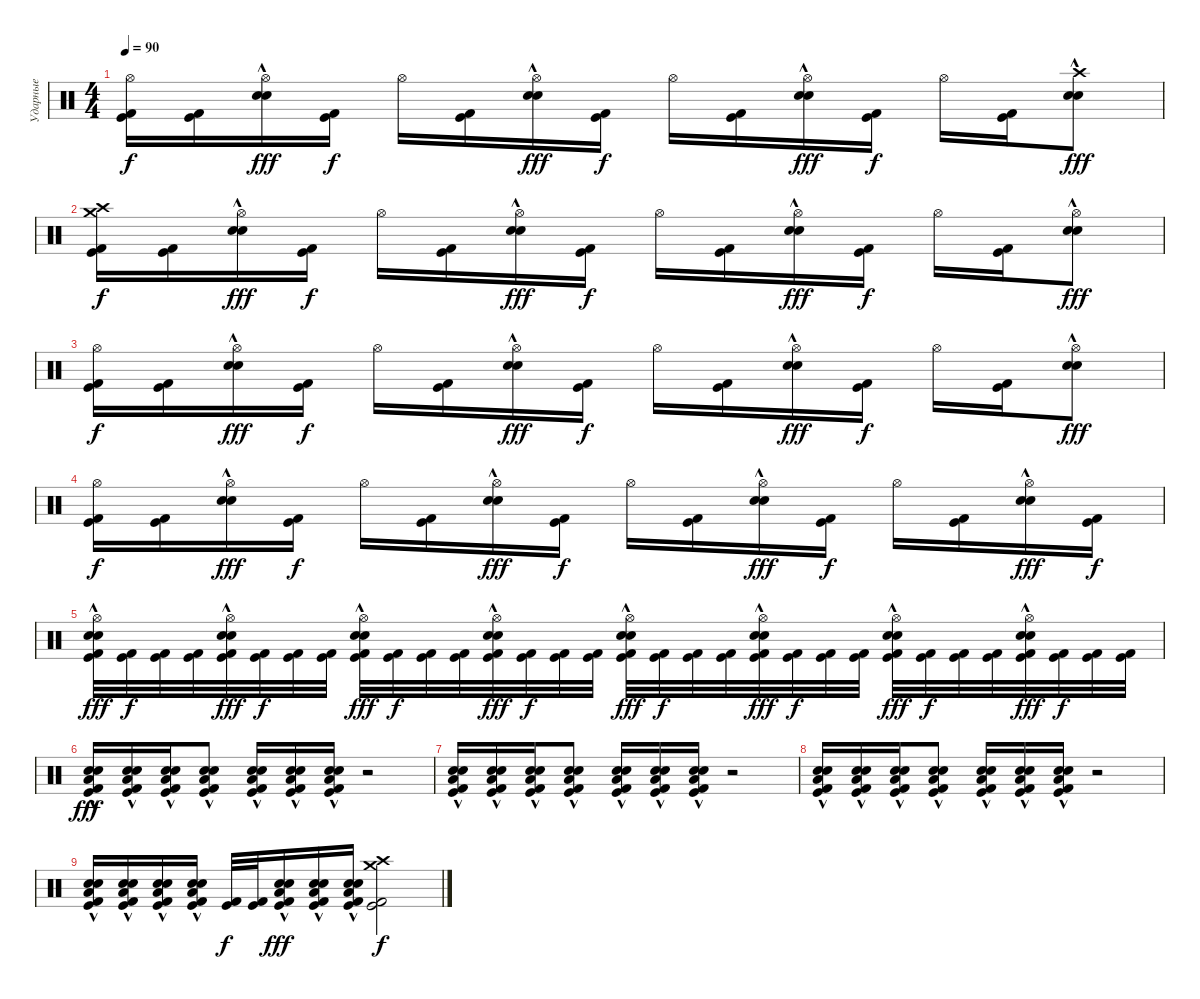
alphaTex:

\track ("Ударные" "Ударные") {instrument percussion}
\staff {score}
\articulation defaults
\ts (4 4)
\tempo 90
\clef neutral
\ks c
("Hi-Hat (open)" "Kick (hit)" "Kick (hit) 2").16{dy f} ("Kick (hit)" "Kick (hit) 2").16 ("Hi-Hat (open)" "Snare (hit) 2"{hac} "Electric Snare (hit)"{hac}).16{dy fff} ("Kick (hit)" "Kick (hit) 2").16{dy f} "Hi-Hat (open)".16 ("Kick (hit)" "Kick (hit) 2").16 ("Hi-Hat (open)" "Snare (hit) 2"{hac} "Electric Snare (hit)"{hac}).16{dy fff} ("Kick (hit)" "Kick (hit) 2").16{dy f} "Hi-Hat (open)".16 ("Kick (hit)" "Kick (hit) 2").16 ("Hi-Hat (open)" "Snare (hit) 2"{hac} "Electric Snare (hit)"{hac}).16{dy fff} ("Kick (hit)" "Kick (hit) 2").16{dy f} "Hi-Hat (open)".16 ("Kick (hit)" "Kick (hit) 2").16 ("Crash high (hit)" "Snare (hit) 2"{hac} "Electric Snare (hit)"{hac}).8{dy fff} |
("Crash high (hit)" "Kick (hit)" "Kick (hit) 2" "Crash medium (hit)").16{dy f} ("Kick (hit)" "Kick (hit) 2").16 ("Hi-Hat (open)" "Snare (hit) 2"{hac} "Electric Snare (hit)"{hac}).16{dy fff} ("Kick (hit)" "Kick (hit) 2").16{dy f} "Hi-Hat (open)".16 ("Kick (hit)" "Kick (hit) 2").16 ("Hi-Hat (open)" "Snare (hit) 2"{hac} "Electric Snare (hit)"{hac}).16{dy fff} ("Kick (hit)" "Kick (hit) 2").16{dy f} "Hi-Hat (open)".16 ("Kick (hit)" "Kick (hit) 2").16 ("Hi-Hat (open)" "Snare (hit) 2"{hac} "Electric Snare (hit)"{hac}).16{dy fff} ("Kick (hit)" "Kick (hit) 2").16{dy f} "Hi-Hat (open)".16 ("Kick (hit)" "Kick (hit) 2").16 ("Hi-Hat (open)" "Snare (hit) 2"{hac} "Electric Snare (hit)"{hac}).8{dy fff} |
("Hi-Hat (open)" "Kick (hit)" "Kick (hit) 2").16{dy f} ("Kick (hit)" "Kick (hit) 2").16 ("Hi-Hat (open)" "Snare (hit) 2"{hac} "Electric Snare (hit)"{hac}).16{dy fff} ("Kick (hit)" "Kick (hit) 2").16{dy f} "Hi-Hat (open)".16 ("Kick (hit)" "Kick (hit) 2").16 ("Hi-Hat (open)" "Snare (hit) 2"{hac} "Electric Snare (hit)"{hac}).16{dy fff} ("Kick (hit)" "Kick (hit) 2").16{dy f} "Hi-Hat (open)".16 ("Kick (hit)" "Kick (hit) 2").16 ("Hi-Hat (open)" "Snare (hit) 2"{hac} "Electric Snare (hit)"{hac}).16{dy fff} ("Kick (hit)" "Kick (hit) 2").16{dy f} "Hi-Hat (open)".16 ("Kick (hit)" "Kick (hit) 2").16 ("Hi-Hat (open)" "Snare (hit) 2"{hac} "Electric Snare (hit)"{hac}).8{dy fff} |
("Hi-Hat (open)" "Kick (hit)" "Kick (hit) 2").16{dy f} ("Kick (hit)" "Kick (hit) 2").16 ("Hi-Hat (open)" "Snare (hit) 2"{hac} "Electric Snare (hit)"{hac}).16{dy fff} ("Kick (hit)" "Kick (hit) 2").16{dy f} "Hi-Hat (open)".16 ("Kick (hit)" "Kick (hit) 2").16 ("Hi-Hat (open)" "Snare (hit) 2"{hac} "Electric Snare (hit)"{hac}).16{dy fff} ("Kick (hit)" "Kick (hit) 2").16{dy f} "Hi-Hat (open)".16 ("Kick (hit)" "Kick (hit) 2").16 ("Hi-Hat (open)" "Snare (hit) 2"{hac} "Electric Snare (hit)"{hac}).16{dy fff} ("Kick (hit)" "Kick (hit) 2").16{dy f} "Hi-Hat (open)".16 ("Kick (hit)" "Kick (hit) 2").16 ("Hi-Hat (open)" "Snare (hit) 2"{hac} "Electric Snare (hit)"{hac}).16{dy fff} ("Kick (hit)" "Kick (hit) 2").16{dy f} |
("Hi-Hat (open)" "Kick (hit)" "Kick (hit) 2" "Snare (hit) 2"{hac} "Electric Snare (hit)"{hac}).32{dy fff} ("Kick (hit)" "Kick (hit) 2").32{dy f} ("Kick (hit)" "Kick (hit) 2").32 ("Kick (hit)" "Kick (hit) 2").32 ("Hi-Hat (open)" "Kick (hit)" "Kick (hit) 2" "Snare (hit) 2"{hac} "Electric Snare (hit)"{hac}).32{dy fff} ("Kick (hit)" "Kick (hit) 2").32{dy f} ("Kick (hit)" "Kick (hit) 2").32 ("Kick (hit)" "Kick (hit) 2").32 ("Hi-Hat (open)" "Kick (hit)" "Kick (hit) 2" "Snare (hit) 2"{hac} "Electric Snare (hit)"{hac}).32{dy fff} ("Kick (hit)" "Kick (hit) 2").32{dy f} ("Kick (hit)" "Kick (hit) 2").32 ("Kick (hit)" "Kick (hit) 2").32 ("Hi-Hat (open)" "Kick (hit)" "Kick (hit) 2" "Snare (hit) 2"{hac} "Electric Snare (hit)"{hac}).32{dy fff} ("Kick (hit)" "Kick (hit) 2").32{dy f} ("Kick (hit)" "Kick (hit) 2").32 ("Kick (hit)" "Kick (hit) 2").32 ("Hi-Hat (open)" "Kick (hit)" "Kick (hit) 2" "Snare (hit) 2"{hac} "Electric Snare (hit)"{hac}).32{dy fff} ("Kick (hit)" "Kick (hit) 2").32{dy f} ("Kick (hit)" "Kick (hit) 2").32 ("Kick (hit)" "Kick (hit) 2").32 ("Hi-Hat (open)" "Kick (hit)" "Kick (hit) 2" "Snare (hit) 2"{hac} "Electric Snare (hit)"{hac}).32{dy fff} ("Kick (hit)" "Kick (hit) 2").32{dy f} ("Kick (hit)" "Kick (hit) 2").32 ("Kick (hit)" "Kick (hit) 2").32 ("Hi-Hat (open)" "Kick (hit)" "Kick (hit) 2" "Snare (hit) 2"{hac} "Electric Snare (hit)"{hac}).32{dy fff} ("Kick (hit)" "Kick (hit) 2").32{dy f} ("Kick (hit)" "Kick (hit) 2").32 ("Kick (hit)" "Kick (hit) 2").32 ("Hi-Hat (open)" "Kick (hit)" "Kick (hit) 2" "Snare (hit) 2"{hac} "Electric Snare (hit)"{hac}).32{dy fff} ("Kick (hit)" "Kick (hit) 2").32{dy f} ("Kick (hit)" "Kick (hit) 2").32 ("Kick (hit)" "Kick (hit) 2").32 |
("Kick (hit)" "Kick (hit) 2" "Snare (hit) 2"{hac} "Electric Snare (hit)"{hac} "Low Floor Tom (hit)"{hac}).16{dy fff} ("Kick (hit)" "Kick (hit) 2" "Snare (hit) 2"{hac} "Electric Snare (hit)"{hac} "Low Floor Tom (hit)"{hac}).16 ("Kick (hit)" "Kick (hit) 2" "Snare (hit) 2"{hac} "Electric Snare (hit)"{hac} "Low Floor Tom (hit)"{hac}).16 ("Kick (hit)" "Kick (hit) 2" "Snare (hit) 2"{hac} "Electric Snare (hit)"{hac} "Low Floor Tom (hit)"{hac}).8 ("Kick (hit)" "Kick (hit) 2" "Snare (hit) 2"{hac} "Electric Snare (hit)"{hac} "Low Floor Tom (hit)"{hac}).16 ("Kick (hit)" "Kick (hit) 2" "Snare (hit) 2"{hac} "Electric Snare (hit)"{hac} "Low Floor Tom (hit)"{hac}).16 ("Kick (hit)" "Kick (hit) 2" "Snare (hit) 2"{hac} "Electric Snare (hit)"{hac} "Low Floor Tom (hit)"{hac}).16 r.2 |
("Kick (hit)" "Kick (hit) 2" "Snare (hit) 2"{hac} "Electric Snare (hit)"{hac} "Low Floor Tom (hit)"{hac}).16 ("Kick (hit)" "Kick (hit) 2" "Snare (hit) 2"{hac} "Electric Snare (hit)"{hac} "Low Floor Tom (hit)"{hac}).16 ("Kick (hit)" "Kick (hit) 2" "Snare (hit) 2"{hac} "Electric Snare (hit)"{hac} "Low Floor Tom (hit)"{hac}).16 ("Kick (hit)" "Kick (hit) 2" "Snare (hit) 2"{hac} "Electric Snare (hit)"{hac} "Low Floor Tom (hit)"{hac}).8 ("Kick (hit)" "Kick (hit) 2" "Snare (hit) 2"{hac} "Electric Snare (hit)"{hac} "Low Floor Tom (hit)"{hac}).16 ("Kick (hit)" "Kick (hit) 2" "Snare (hit) 2"{hac} "Electric Snare (hit)"{hac} "Low Floor Tom (hit)"{hac}).16 ("Kick (hit)" "Kick (hit) 2" "Snare (hit) 2"{hac} "Electric Snare (hit)"{hac} "Low Floor Tom (hit)"{hac}).16 r.2 |
("Kick (hit)" "Kick (hit) 2" "Snare (hit) 2"{hac} "Electric Snare (hit)"{hac} "Low Floor Tom (hit)"{hac}).16 ("Kick (hit)" "Kick (hit) 2" "Snare (hit) 2"{hac} "Electric Snare (hit)"{hac} "Low Floor Tom (hit)"{hac}).16 ("Kick (hit)" "Kick (hit) 2" "Snare (hit) 2"{hac} "Electric Snare (hit)"{hac} "Low Floor Tom (hit)"{hac}).16 ("Kick (hit)" "Kick (hit) 2" "Snare (hit) 2"{hac} "Electric Snare (hit)"{hac} "Low Floor Tom (hit)"{hac}).8 ("Kick (hit)" "Kick (hit) 2" "Snare (hit) 2"{hac} "Electric Snare (hit)"{hac} "Low Floor Tom (hit)"{hac}).16 ("Kick (hit)" "Kick (hit) 2" "Snare (hit) 2"{hac} "Electric Snare (hit)"{hac} "Low Floor Tom (hit)"{hac}).16 ("Kick (hit)" "Kick (hit) 2" "Snare (hit) 2"{hac} "Electric Snare (hit)"{hac} "Low Floor Tom (hit)"{hac}).16 r.2 |
("Kick (hit)" "Kick (hit) 2" "Snare (hit) 2"{hac} "Electric Snare (hit)"{hac} "Low Floor Tom (hit)"{hac}).16 ("Kick (hit)" "Kick (hit) 2" "Snare (hit) 2"{hac} "Electric Snare (hit)"{hac} "Low Floor Tom (hit)"{hac}).16 ("Kick (hit)" "Kick (hit) 2" "Snare (hit) 2"{hac} "Electric Snare (hit)"{hac} "Low Floor Tom (hit)"{hac}).16 ("Kick (hit)" "Kick (hit) 2" "Snare (hit) 2"{hac} "Electric Snare (hit)"{hac} "Low Floor Tom (hit)"{hac}).16 ("Kick (hit)" "Kick (hit) 2").32{dy f} ("Kick (hit)" "Kick (hit) 2").32 ("Kick (hit)" "Kick (hit) 2" "Snare (hit) 2"{hac} "Electric Snare (hit)"{hac} "Low Floor Tom (hit)"{hac}).16{dy fff} ("Kick (hit)" "Kick (hit) 2" "Snare (hit) 2"{hac} "Electric Snare (hit)"{hac} "Low Floor Tom (hit)"{hac}).16 ("Kick (hit)" "Kick (hit) 2" "Snare (hit) 2"{hac} "Electric Snare (hit)"{hac} "Low Floor Tom (hit)"{hac}).16 ("Crash high (hit)" "Kick (hit)" "Kick (hit) 2" "Crash medium (hit)").2{dy f}
